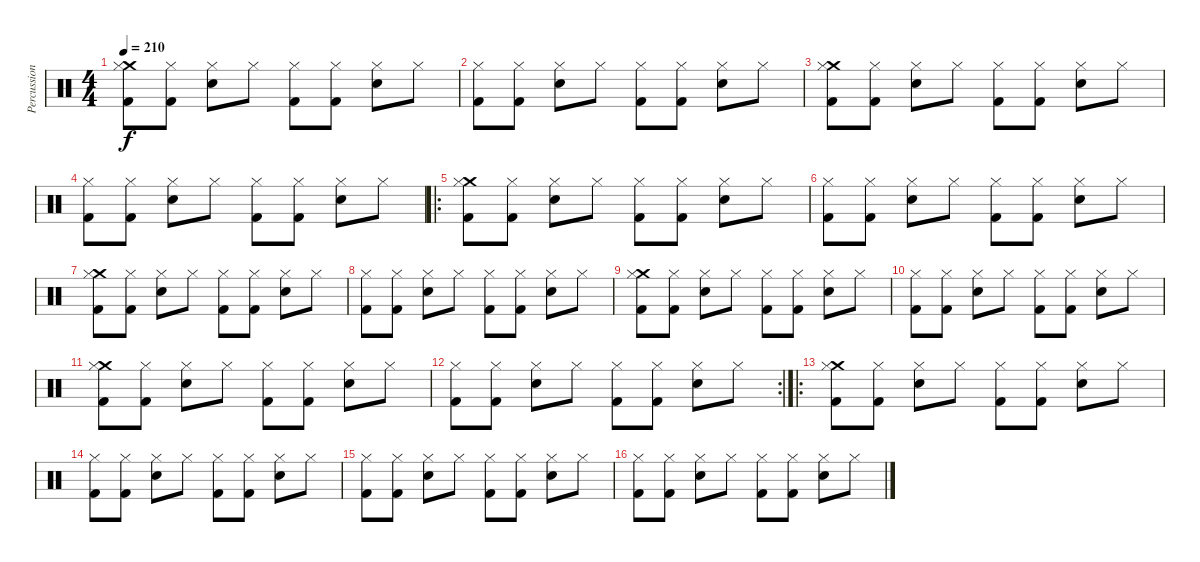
\track ("Percussion" "Percussion") {instrument percussion}
\staff {score}
\articulation defaults
\ts (4 4)
\tempo 210
\clef neutral
\ks c
("Crash medium (hit)" "Hi-Hat (closed)" "Kick (hit) 2").8{dy f} ("Hi-Hat (closed)" "Kick (hit) 2").8 ("Hi-Hat (closed)" "Electric Snare (hit)").8 "Hi-Hat (closed)".8 ("Hi-Hat (closed)" "Kick (hit) 2").8 ("Hi-Hat (closed)" "Kick (hit) 2").8 ("Hi-Hat (closed)" "Electric Snare (hit)").8 "Hi-Hat (closed)".8 |
("Hi-Hat (closed)" "Kick (hit) 2").8 ("Hi-Hat (closed)" "Kick (hit) 2").8 ("Hi-Hat (closed)" "Electric Snare (hit)").8 "Hi-Hat (closed)".8 ("Hi-Hat (closed)" "Kick (hit) 2").8 ("Hi-Hat (closed)" "Kick (hit) 2").8 ("Hi-Hat (closed)" "Electric Snare (hit)").8 "Hi-Hat (closed)".8 |
("Crash medium (hit)" "Hi-Hat (closed)" "Kick (hit) 2").8 ("Hi-Hat (closed)" "Kick (hit) 2").8 ("Hi-Hat (closed)" "Electric Snare (hit)").8 "Hi-Hat (closed)".8 ("Hi-Hat (closed)" "Kick (hit) 2").8 ("Hi-Hat (closed)" "Kick (hit) 2").8 ("Hi-Hat (closed)" "Electric Snare (hit)").8 "Hi-Hat (closed)".8 |
("Hi-Hat (closed)" "Kick (hit) 2").8 ("Hi-Hat (closed)" "Kick (hit) 2").8 ("Hi-Hat (closed)" "Electric Snare (hit)").8 "Hi-Hat (closed)".8 ("Hi-Hat (closed)" "Kick (hit) 2").8 ("Hi-Hat (closed)" "Kick (hit) 2").8 ("Hi-Hat (closed)" "Electric Snare (hit)").8 "Hi-Hat (closed)".8 |
\ro
("Crash medium (hit)" "Hi-Hat (closed)" "Kick (hit) 2").8 ("Hi-Hat (closed)" "Kick (hit) 2").8 ("Hi-Hat (closed)" "Electric Snare (hit)").8 "Hi-Hat (closed)".8 ("Hi-Hat (closed)" "Kick (hit) 2").8 ("Hi-Hat (closed)" "Kick (hit) 2").8 ("Hi-Hat (closed)" "Electric Snare (hit)").8 "Hi-Hat (closed)".8 |
("Hi-Hat (closed)" "Kick (hit) 2").8 ("Hi-Hat (closed)" "Kick (hit) 2").8 ("Hi-Hat (closed)" "Electric Snare (hit)").8 "Hi-Hat (closed)".8 ("Hi-Hat (closed)" "Kick (hit) 2").8 ("Hi-Hat (closed)" "Kick (hit) 2").8 ("Hi-Hat (closed)" "Electric Snare (hit)").8 "Hi-Hat (closed)".8 |
("Crash medium (hit)" "Hi-Hat (closed)" "Kick (hit) 2").8 ("Hi-Hat (closed)" "Kick (hit) 2").8 ("Hi-Hat (closed)" "Electric Snare (hit)").8 "Hi-Hat (closed)".8 ("Hi-Hat (closed)" "Kick (hit) 2").8 ("Hi-Hat (closed)" "Kick (hit) 2").8 ("Hi-Hat (closed)" "Electric Snare (hit)").8 "Hi-Hat (closed)".8 |
("Hi-Hat (closed)" "Kick (hit) 2").8 ("Hi-Hat (closed)" "Kick (hit) 2").8 ("Hi-Hat (closed)" "Electric Snare (hit)").8 "Hi-Hat (closed)".8 ("Hi-Hat (closed)" "Kick (hit) 2").8 ("Hi-Hat (closed)" "Kick (hit) 2").8 ("Hi-Hat (closed)" "Electric Snare (hit)").8 "Hi-Hat (closed)".8 |
("Crash medium (hit)" "Hi-Hat (closed)" "Kick (hit) 2").8 ("Hi-Hat (closed)" "Kick (hit) 2").8 ("Hi-Hat (closed)" "Electric Snare (hit)").8 "Hi-Hat (closed)".8 ("Hi-Hat (closed)" "Kick (hit) 2").8 ("Hi-Hat (closed)" "Kick (hit) 2").8 ("Hi-Hat (closed)" "Electric Snare (hit)").8 "Hi-Hat (closed)".8 |
("Hi-Hat (closed)" "Kick (hit) 2").8 ("Hi-Hat (closed)" "Kick (hit) 2").8 ("Hi-Hat (closed)" "Electric Snare (hit)").8 "Hi-Hat (closed)".8 ("Hi-Hat (closed)" "Kick (hit) 2").8 ("Hi-Hat (closed)" "Kick (hit) 2").8 ("Hi-Hat (closed)" "Electric Snare (hit)").8 "Hi-Hat (closed)".8 |
("Crash medium (hit)" "Hi-Hat (closed)" "Kick (hit) 2").8 ("Hi-Hat (closed)" "Kick (hit) 2").8 ("Hi-Hat (closed)" "Electric Snare (hit)").8 "Hi-Hat (closed)".8 ("Hi-Hat (closed)" "Kick (hit) 2").8 ("Hi-Hat (closed)" "Kick (hit) 2").8 ("Hi-Hat (closed)" "Electric Snare (hit)").8 "Hi-Hat (closed)".8 |
\rc 2
("Hi-Hat (closed)" "Kick (hit) 2").8 ("Hi-Hat (closed)" "Kick (hit) 2").8 ("Hi-Hat (closed)" "Electric Snare (hit)").8 "Hi-Hat (closed)".8 ("Hi-Hat (closed)" "Kick (hit) 2").8 ("Hi-Hat (closed)" "Kick (hit) 2").8 ("Hi-Hat (closed)" "Electric Snare (hit)").8 "Hi-Hat (closed)".8 |
\ro
("Crash medium (hit)" "Hi-Hat (closed)" "Kick (hit) 2").8 ("Hi-Hat (closed)" "Kick (hit) 2").8 ("Hi-Hat (closed)" "Electric Snare (hit)").8 "Hi-Hat (closed)".8 ("Hi-Hat (closed)" "Kick (hit) 2").8 ("Hi-Hat (closed)" "Kick (hit) 2").8 ("Hi-Hat (closed)" "Electric Snare (hit)").8 "Hi-Hat (closed)".8 |
("Hi-Hat (closed)" "Kick (hit) 2").8 ("Hi-Hat (closed)" "Kick (hit) 2").8 ("Hi-Hat (closed)" "Electric Snare (hit)").8 "Hi-Hat (closed)".8 ("Hi-Hat (closed)" "Kick (hit) 2").8 ("Hi-Hat (closed)" "Kick (hit) 2").8 ("Hi-Hat (closed)" "Electric Snare (hit)").8 "Hi-Hat (closed)".8 |
("Hi-Hat (closed)" "Kick (hit) 2").8 ("Hi-Hat (closed)" "Kick (hit) 2").8 ("Hi-Hat (closed)" "Electric Snare (hit)").8 "Hi-Hat (closed)".8 ("Hi-Hat (closed)" "Kick (hit) 2").8 ("Hi-Hat (closed)" "Kick (hit) 2").8 ("Hi-Hat (closed)" "Electric Snare (hit)").8 "Hi-Hat (closed)".8 |
("Hi-Hat (closed)" "Kick (hit) 2").8 ("Hi-Hat (closed)" "Kick (hit) 2").8 ("Hi-Hat (closed)" "Electric Snare (hit)").8 "Hi-Hat (closed)".8 ("Hi-Hat (closed)" "Kick (hit) 2").8 ("Hi-Hat (closed)" "Kick (hit) 2").8 ("Hi-Hat (closed)" "Electric Snare (hit)").8 "Hi-Hat (closed)".8
